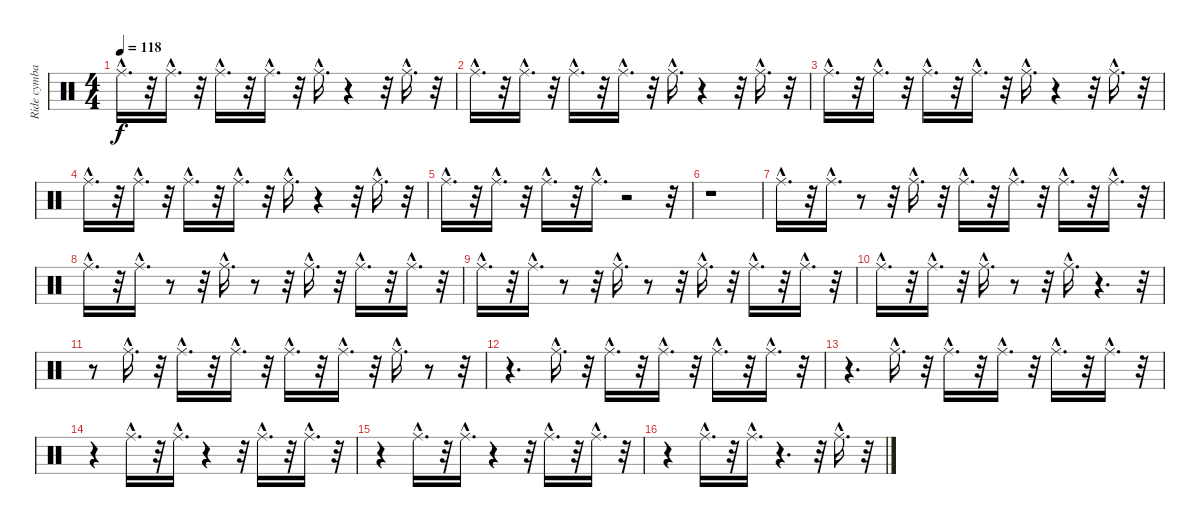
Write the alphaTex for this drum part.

\track ("Ride cymbal         " "Ride cymba") {instrument percussion}
\staff {score}
\articulation defaults
\ts (4 4)
\tempo 118
\clef neutral
\ks c "Ride (middle)"{hac}.16{d dy f}
r.32 "Ride (middle)"{hac}.16{d} r.32 "Ride (middle)"{hac}.16{d} r.32 "Ride (middle)"{hac}.16{d} r.32 "Ride (middle)"{hac}.16{d} r.4 r.32 "Ride (middle)"{hac}.16{d} r.32 |
"Ride (middle)"{hac}.16{d} r.32 "Ride (middle)"{hac}.16{d} r.32 "Ride (middle)"{hac}.16{d} r.32 "Ride (middle)"{hac}.16{d} r.32 "Ride (middle)"{hac}.16{d} r.4 r.32 "Ride (middle)"{hac}.16{d} r.32 |
"Ride (middle)"{hac}.16{d} r.32 "Ride (middle)"{hac}.16{d} r.32 "Ride (middle)"{hac}.16{d} r.32 "Ride (middle)"{hac}.16{d} r.32 "Ride (middle)"{hac}.16{d} r.4 r.32 "Ride (middle)"{hac}.16{d} r.32 |
"Ride (middle)"{hac}.16{d} r.32 "Ride (middle)"{hac}.16{d} r.32 "Ride (middle)"{hac}.16{d} r.32 "Ride (middle)"{hac}.16{d} r.32 "Ride (middle)"{hac}.16{d} r.4 r.32 "Ride (middle)"{hac}.16{d} r.32 |
"Ride (middle)"{hac}.16{d} r.32 "Ride (middle)"{hac}.16{d} r.32 "Ride (middle)"{hac}.16{d} r.32 "Ride (middle)"{hac}.16{d} r.2 r.32 |
r.1 |
"Ride (middle)"{hac}.16{d} r.32 "Ride (middle)"{hac}.16{d} r.8 r.32 "Ride (middle)"{hac}.16{d} r.32 "Ride (middle)"{hac}.16{d} r.32 "Ride (middle)"{hac}.16{d} r.32 "Ride (middle)"{hac}.16{d} r.32 "Ride (middle)"{hac}.16{d} r.32 |
"Ride (middle)"{hac}.16{d} r.32 "Ride (middle)"{hac}.16{d} r.8 r.32 "Ride (middle)"{hac}.16{d} r.8 r.32 "Ride (middle)"{hac}.16{d} r.32 "Ride (middle)"{hac}.16{d} r.32 "Ride (middle)"{hac}.16{d} r.32 |
"Ride (middle)"{hac}.16{d} r.32 "Ride (middle)"{hac}.16{d} r.8 r.32 "Ride (middle)"{hac}.16{d} r.8 r.32 "Ride (middle)"{hac}.16{d} r.32 "Ride (middle)"{hac}.16{d} r.32 "Ride (middle)"{hac}.16{d} r.32 |
"Ride (middle)"{hac}.16{d} r.32 "Ride (middle)"{hac}.16{d} r.32 "Ride (middle)"{hac}.16{d} r.8 r.32 "Ride (middle)"{hac}.16{d} r.4{d} r.32 |
r.8 "Ride (middle)"{hac}.16{d} r.32 "Ride (middle)"{hac}.16{d} r.32 "Ride (middle)"{hac}.16{d} r.32 "Ride (middle)"{hac}.16{d} r.32 "Ride (middle)"{hac}.16{d} r.32 "Ride (middle)"{hac}.16{d} r.8 r.32 |
r.4{d} "Ride (middle)"{hac}.16{d} r.32 "Ride (middle)"{hac}.16{d} r.32 "Ride (middle)"{hac}.16{d} r.32 "Ride (middle)"{hac}.16{d} r.32 "Ride (middle)"{hac}.16{d} r.32 |
r.4{d} "Ride (middle)"{hac}.16{d} r.32 "Ride (middle)"{hac}.16{d} r.32 "Ride (middle)"{hac}.16{d} r.32 "Ride (middle)"{hac}.16{d} r.32 "Ride (middle)"{hac}.16{d} r.32 |
r.4 "Ride (middle)"{hac}.16{d} r.32 "Ride (middle)"{hac}.16{d} r.4 r.32 "Ride (middle)"{hac}.16{d} r.32 "Ride (middle)"{hac}.16{d} r.32 |
r.4 "Ride (middle)"{hac}.16{d} r.32 "Ride (middle)"{hac}.16{d} r.4 r.32 "Ride (middle)"{hac}.16{d} r.32 "Ride (middle)"{hac}.16{d} r.32 |
r.4 "Ride (middle)"{hac}.16{d} r.32 "Ride (middle)"{hac}.16{d} r.4{d} r.32 "Ride (middle)"{hac}.16{d} r.32
